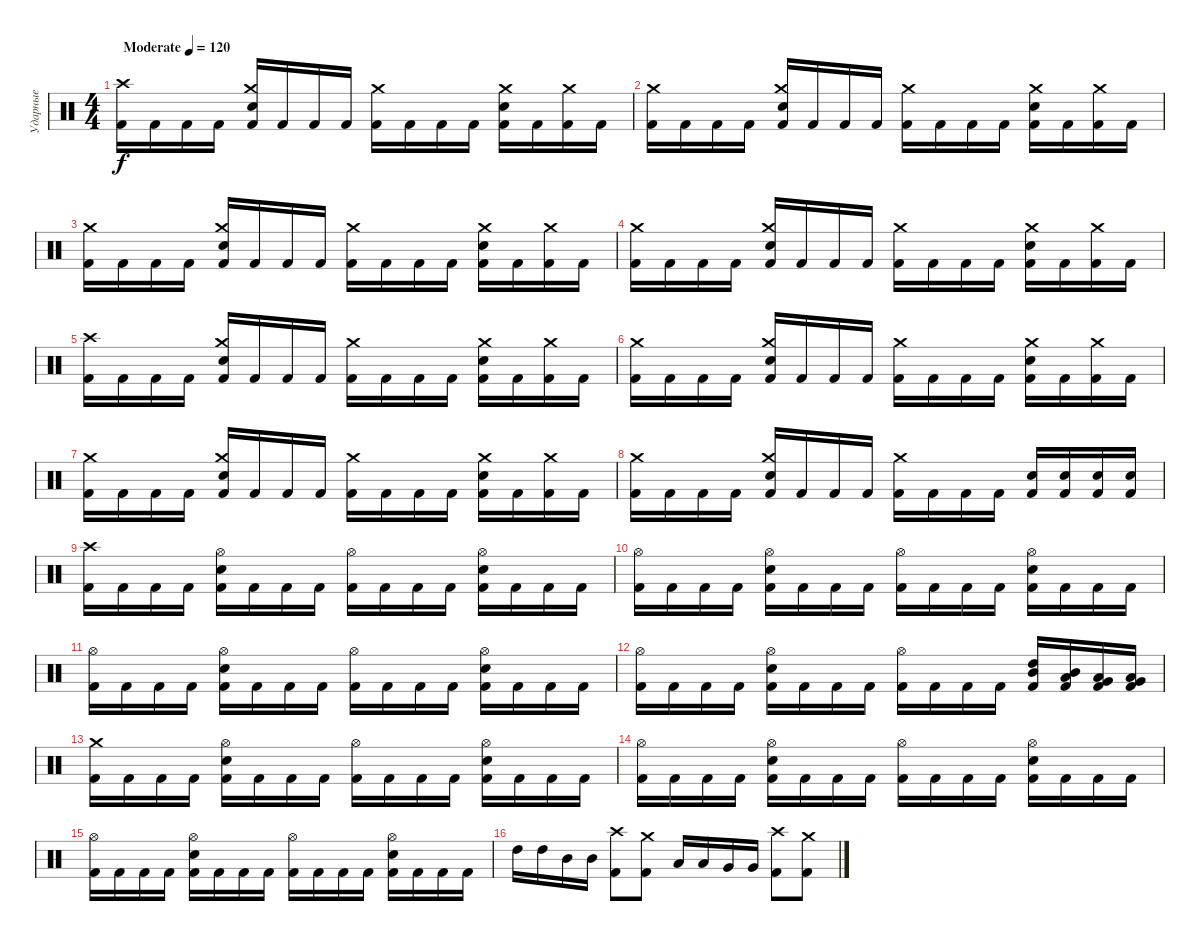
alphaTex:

\track ("Ударные" "Ударные") {instrument percussion}
\staff {score}
\articulation defaults
\ts (4 4)
\tempo (120 "Moderate")
\clef neutral
\ks c
("Crash high (hit)" "Kick (hit) 2").16{dy f} "Kick (hit) 2".16 "Kick (hit) 2".16 "Kick (hit) 2".16 ("Crash medium (hit)" "Electric Snare (hit)" "Kick (hit) 2").16 "Kick (hit) 2".16 "Kick (hit) 2".16 "Kick (hit) 2".16 ("Crash medium (hit)" "Kick (hit) 2").16 "Kick (hit) 2".16 "Kick (hit) 2".16 "Kick (hit) 2".16 ("Crash medium (hit)" "Electric Snare (hit)" "Kick (hit) 2").16 "Kick (hit) 2".16 ("Crash medium (hit)" "Kick (hit) 2").16 "Kick (hit) 2".16 |
("Crash medium (hit)" "Kick (hit) 2").16 "Kick (hit) 2".16 "Kick (hit) 2".16 "Kick (hit) 2".16 ("Crash medium (hit)" "Electric Snare (hit)" "Kick (hit) 2").16 "Kick (hit) 2".16 "Kick (hit) 2".16 "Kick (hit) 2".16 ("Crash medium (hit)" "Kick (hit) 2").16 "Kick (hit) 2".16 "Kick (hit) 2".16 "Kick (hit) 2".16 ("Crash medium (hit)" "Electric Snare (hit)" "Kick (hit) 2").16 "Kick (hit) 2".16 ("Crash medium (hit)" "Kick (hit) 2").16 "Kick (hit) 2".16 |
("Crash medium (hit)" "Kick (hit) 2").16 "Kick (hit) 2".16 "Kick (hit) 2".16 "Kick (hit) 2".16 ("Crash medium (hit)" "Electric Snare (hit)" "Kick (hit) 2").16 "Kick (hit) 2".16 "Kick (hit) 2".16 "Kick (hit) 2".16 ("Crash medium (hit)" "Kick (hit) 2").16 "Kick (hit) 2".16 "Kick (hit) 2".16 "Kick (hit) 2".16 ("Crash medium (hit)" "Electric Snare (hit)" "Kick (hit) 2").16 "Kick (hit) 2".16 ("Crash medium (hit)" "Kick (hit) 2").16 "Kick (hit) 2".16 |
("Crash medium (hit)" "Kick (hit) 2").16 "Kick (hit) 2".16 "Kick (hit) 2".16 "Kick (hit) 2".16 ("Crash medium (hit)" "Electric Snare (hit)" "Kick (hit) 2").16 "Kick (hit) 2".16 "Kick (hit) 2".16 "Kick (hit) 2".16 ("Crash medium (hit)" "Kick (hit) 2").16 "Kick (hit) 2".16 "Kick (hit) 2".16 "Kick (hit) 2".16 ("Crash medium (hit)" "Electric Snare (hit)" "Kick (hit) 2").16 "Kick (hit) 2".16 ("Crash medium (hit)" "Kick (hit) 2").16 "Kick (hit) 2".16 |
("Crash high (hit)" "Kick (hit) 2").16 "Kick (hit) 2".16 "Kick (hit) 2".16 "Kick (hit) 2".16 ("Crash medium (hit)" "Electric Snare (hit)" "Kick (hit) 2").16 "Kick (hit) 2".16 "Kick (hit) 2".16 "Kick (hit) 2".16 ("Crash medium (hit)" "Kick (hit) 2").16 "Kick (hit) 2".16 "Kick (hit) 2".16 "Kick (hit) 2".16 ("Crash medium (hit)" "Electric Snare (hit)" "Kick (hit) 2").16 "Kick (hit) 2".16 ("Crash medium (hit)" "Kick (hit) 2").16 "Kick (hit) 2".16 |
("Crash medium (hit)" "Kick (hit) 2").16 "Kick (hit) 2".16 "Kick (hit) 2".16 "Kick (hit) 2".16 ("Crash medium (hit)" "Electric Snare (hit)" "Kick (hit) 2").16 "Kick (hit) 2".16 "Kick (hit) 2".16 "Kick (hit) 2".16 ("Crash medium (hit)" "Kick (hit) 2").16 "Kick (hit) 2".16 "Kick (hit) 2".16 "Kick (hit) 2".16 ("Crash medium (hit)" "Electric Snare (hit)" "Kick (hit) 2").16 "Kick (hit) 2".16 ("Crash medium (hit)" "Kick (hit) 2").16 "Kick (hit) 2".16 |
("Crash medium (hit)" "Kick (hit) 2").16 "Kick (hit) 2".16 "Kick (hit) 2".16 "Kick (hit) 2".16 ("Crash medium (hit)" "Electric Snare (hit)" "Kick (hit) 2").16 "Kick (hit) 2".16 "Kick (hit) 2".16 "Kick (hit) 2".16 ("Crash medium (hit)" "Kick (hit) 2").16 "Kick (hit) 2".16 "Kick (hit) 2".16 "Kick (hit) 2".16 ("Crash medium (hit)" "Electric Snare (hit)" "Kick (hit) 2").16 "Kick (hit) 2".16 ("Crash medium (hit)" "Kick (hit) 2").16 "Kick (hit) 2".16 |
("Crash medium (hit)" "Kick (hit) 2").16 "Kick (hit) 2".16 "Kick (hit) 2".16 "Kick (hit) 2".16 ("Crash medium (hit)" "Electric Snare (hit)" "Kick (hit) 2").16 "Kick (hit) 2".16 "Kick (hit) 2".16 "Kick (hit) 2".16 ("Crash medium (hit)" "Kick (hit) 2").16 "Kick (hit) 2".16 "Kick (hit) 2".16 "Kick (hit) 2".16 ("Electric Snare (hit)" "Kick (hit) 2").16 ("Electric Snare (hit)" "Kick (hit) 2").16 ("Electric Snare (hit)" "Kick (hit) 2").16 ("Electric Snare (hit)" "Kick (hit) 2").16 |
("Crash high (hit)" "Kick (hit) 2").16 "Kick (hit) 2".16 "Kick (hit) 2".16 "Kick (hit) 2".16 ("Hi-Hat (open)" "Electric Snare (hit)" "Kick (hit) 2").16 "Kick (hit) 2".16 "Kick (hit) 2".16 "Kick (hit) 2".16 ("Hi-Hat (open)" "Kick (hit) 2").16 "Kick (hit) 2".16 "Kick (hit) 2".16 "Kick (hit) 2".16 ("Hi-Hat (open)" "Electric Snare (hit)" "Kick (hit) 2").16 "Kick (hit) 2".16 "Kick (hit) 2".16 "Kick (hit) 2".16 |
("Hi-Hat (open)" "Kick (hit) 2").16 "Kick (hit) 2".16 "Kick (hit) 2".16 "Kick (hit) 2".16 ("Hi-Hat (open)" "Electric Snare (hit)" "Kick (hit) 2").16 "Kick (hit) 2".16 "Kick (hit) 2".16 "Kick (hit) 2".16 ("Hi-Hat (open)" "Kick (hit) 2").16 "Kick (hit) 2".16 "Kick (hit) 2".16 "Kick (hit) 2".16 ("Hi-Hat (open)" "Electric Snare (hit)" "Kick (hit) 2").16 "Kick (hit) 2".16 "Kick (hit) 2".16 "Kick (hit) 2".16 |
("Hi-Hat (open)" "Kick (hit) 2").16 "Kick (hit) 2".16 "Kick (hit) 2".16 "Kick (hit) 2".16 ("Hi-Hat (open)" "Electric Snare (hit)" "Kick (hit) 2").16 "Kick (hit) 2".16 "Kick (hit) 2".16 "Kick (hit) 2".16 ("Hi-Hat (open)" "Kick (hit) 2").16 "Kick (hit) 2".16 "Kick (hit) 2".16 "Kick (hit) 2".16 ("Hi-Hat (open)" "Electric Snare (hit)" "Kick (hit) 2").16 "Kick (hit) 2".16 "Kick (hit) 2".16 "Kick (hit) 2".16 |
("Hi-Hat (open)" "Kick (hit) 2").16 "Kick (hit) 2".16 "Kick (hit) 2".16 "Kick (hit) 2".16 ("Hi-Hat (open)" "Electric Snare (hit)" "Kick (hit) 2").16 "Kick (hit) 2".16 "Kick (hit) 2".16 "Kick (hit) 2".16 ("Hi-Hat (open)" "Kick (hit) 2").16 "Kick (hit) 2".16 "Kick (hit) 2".16 "Kick (hit) 2".16 ("Mid Tom (hit)" "High Tom (hit)" "Kick (hit) 2").16 ("Low Tom (hit)" "Mid Tom (hit)" "Kick (hit) 2").16 ("Very Low Tom (hit)" "Low Tom (hit)" "Kick (hit) 2").16 ("Low Floor Tom (hit)" "Very Low Tom (hit)" "Kick (hit) 2").16 |
("Crash medium (hit)" "Kick (hit) 2").16 "Kick (hit) 2".16 "Kick (hit) 2".16 "Kick (hit) 2".16 ("Hi-Hat (open)" "Electric Snare (hit)" "Kick (hit) 2").16 "Kick (hit) 2".16 "Kick (hit) 2".16 "Kick (hit) 2".16 ("Hi-Hat (open)" "Kick (hit) 2").16 "Kick (hit) 2".16 "Kick (hit) 2".16 "Kick (hit) 2".16 ("Hi-Hat (open)" "Electric Snare (hit)" "Kick (hit) 2").16 "Kick (hit) 2".16 "Kick (hit) 2".16 "Kick (hit) 2".16 |
("Hi-Hat (open)" "Kick (hit) 2").16 "Kick (hit) 2".16 "Kick (hit) 2".16 "Kick (hit) 2".16 ("Hi-Hat (open)" "Electric Snare (hit)" "Kick (hit) 2").16 "Kick (hit) 2".16 "Kick (hit) 2".16 "Kick (hit) 2".16 ("Hi-Hat (open)" "Kick (hit) 2").16 "Kick (hit) 2".16 "Kick (hit) 2".16 "Kick (hit) 2".16 ("Hi-Hat (open)" "Electric Snare (hit)" "Kick (hit) 2").16 "Kick (hit) 2".16 "Kick (hit) 2".16 "Kick (hit) 2".16 |
("Hi-Hat (open)" "Kick (hit) 2").16 "Kick (hit) 2".16 "Kick (hit) 2".16 "Kick (hit) 2".16 ("Hi-Hat (open)" "Electric Snare (hit)" "Kick (hit) 2").16 "Kick (hit) 2".16 "Kick (hit) 2".16 "Kick (hit) 2".16 ("Hi-Hat (open)" "Kick (hit) 2").16 "Kick (hit) 2".16 "Kick (hit) 2".16 "Kick (hit) 2".16 ("Hi-Hat (open)" "Electric Snare (hit)" "Kick (hit) 2").16 "Kick (hit) 2".16 "Kick (hit) 2".16 "Kick (hit) 2".16 |
"High Tom (hit)".16 "High Tom (hit)".16 "Mid Tom (hit)".16 "Mid Tom (hit)".16 ("Crash high (hit)" "Kick (hit) 2").8 ("Crash medium (hit)" "Kick (hit) 2").8 "Low Tom (hit)".16 "Low Tom (hit)".16 "Very Low Tom (hit)".16 "Very Low Tom (hit)".16 ("Crash high (hit)" "Kick (hit) 2").8 ("Crash medium (hit)" "Kick (hit) 2").8
